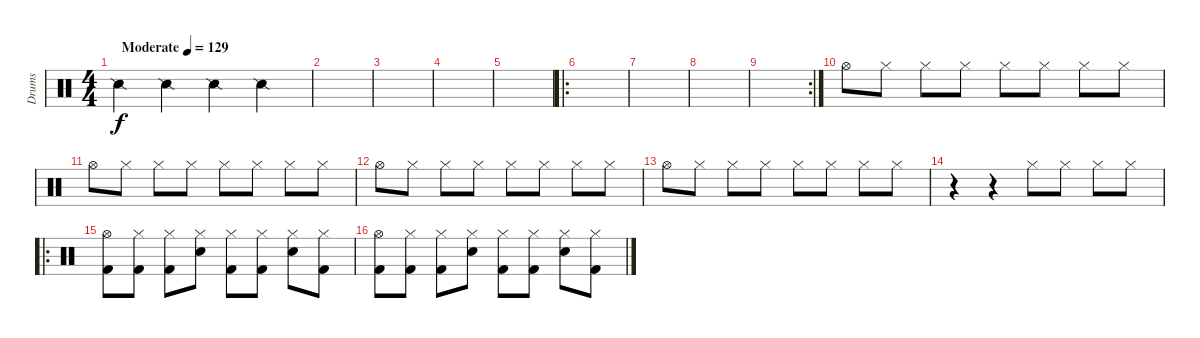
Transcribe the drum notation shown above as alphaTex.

\track ("Drums" "Drums") {instrument percussion}
\staff {score}
\articulation defaults
\ts (4 4)
\tempo (129 "Moderate")
\clef neutral
\ks c "Snare (side stick) 2".4{dy f} "Snare (side stick) 2".4 "Snare (side stick) 2".4 "Snare (side stick) 2".4
|
|
|
|
|
\ro
|
|
|
\rc 2
|
"Hi-Hat (open)".8 "Hi-Hat (closed)".8 "Hi-Hat (closed)".8 "Hi-Hat (closed)".8 "Hi-Hat (closed)".8 "Hi-Hat (closed)".8 "Hi-Hat (closed)".8 "Hi-Hat (closed)".8 |
"Hi-Hat (open)".8 "Hi-Hat (closed)".8 "Hi-Hat (closed)".8 "Hi-Hat (closed)".8 "Hi-Hat (closed)".8 "Hi-Hat (closed)".8 "Hi-Hat (closed)".8 "Hi-Hat (closed)".8 |
"Hi-Hat (open)".8 "Hi-Hat (closed)".8 "Hi-Hat (closed)".8 "Hi-Hat (closed)".8 "Hi-Hat (closed)".8 "Hi-Hat (closed)".8 "Hi-Hat (closed)".8 "Hi-Hat (closed)".8 |
"Hi-Hat (open)".8 "Hi-Hat (closed)".8 "Hi-Hat (closed)".8 "Hi-Hat (closed)".8 "Hi-Hat (closed)".8 "Hi-Hat (closed)".8 "Hi-Hat (closed)".8 "Hi-Hat (closed)".8 |
r.4 r.4 "Hi-Hat (closed)".8 "Hi-Hat (closed)".8 "Hi-Hat (closed)".8 "Hi-Hat (closed)".8 |
\ro
("Kick (hit) 2" "Hi-Hat (open)").8 ("Kick (hit) 2" "Hi-Hat (closed)").8 ("Kick (hit) 2" "Hi-Hat (closed)").8 ("Electric Snare (hit)" "Hi-Hat (closed)").8 ("Kick (hit) 2" "Hi-Hat (closed)").8 ("Kick (hit) 2" "Hi-Hat (closed)").8 ("Electric Snare (hit)" "Hi-Hat (closed)").8 ("Kick (hit) 2" "Hi-Hat (closed)").8 |
("Kick (hit) 2" "Hi-Hat (open)").8 ("Kick (hit) 2" "Hi-Hat (closed)").8 ("Kick (hit) 2" "Hi-Hat (closed)").8 ("Electric Snare (hit)" "Hi-Hat (closed)").8 ("Kick (hit) 2" "Hi-Hat (closed)").8 ("Kick (hit) 2" "Hi-Hat (closed)").8 ("Electric Snare (hit)" "Hi-Hat (closed)").8 ("Kick (hit) 2" "Hi-Hat (closed)").8
